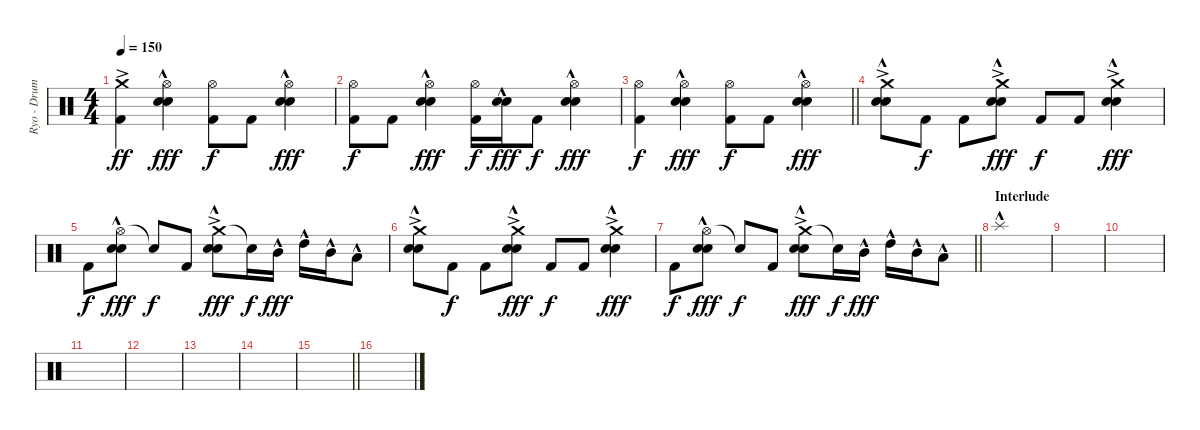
\track ("Ryo - Drums" "Ryo - Drum") {instrument percussion}
\staff {score}
\articulation defaults
\ts (4 4)
\tempo 150
\clef neutral
\ks c
("Crash medium (hit)"{ac} "Kick (hit) 2").4{dy ff} ("Hi-Hat (open)" "Electric Snare (hit)"{hac} "Snare (hit) 2"{hac}).4{dy fff} ("Hi-Hat (open)" "Kick (hit) 2").8{dy f} "Kick (hit) 2".8 ("Hi-Hat (open)" "Electric Snare (hit)"{hac} "Snare (hit) 2"{hac}).4{dy fff} |
("Hi-Hat (open)" "Kick (hit) 2").8{dy f} "Kick (hit) 2".8 ("Hi-Hat (open)" "Electric Snare (hit)"{hac} "Snare (hit) 2"{hac}).4{dy fff} ("Hi-Hat (open)" "Kick (hit) 2").16{dy f} ("Electric Snare (hit)"{hac} "Snare (hit) 2"{hac}).16{dy fff} "Kick (hit) 2".8{dy f} ("Hi-Hat (open)" "Electric Snare (hit)"{hac} "Snare (hit) 2"{hac}).4{dy fff} |
\barLineRight lightlight
("Hi-Hat (open)" "Kick (hit) 2").4{dy f} ("Hi-Hat (open)" "Electric Snare (hit)"{hac} "Snare (hit) 2"{hac}).4{dy fff} ("Hi-Hat (open)" "Kick (hit) 2").8{dy f} "Kick (hit) 2".8 ("Hi-Hat (open)" "Electric Snare (hit)"{hac} "Snare (hit) 2"{hac}).4{dy fff} |
("Crash medium (hit)"{ac} "Electric Snare (hit)"{hac} "Snare (hit) 2"{hac}).8 "Kick (hit) 2".8{dy f} "Kick (hit) 2".8 ("Crash medium (hit)"{ac} "Electric Snare (hit)"{hac} "Snare (hit) 2"{hac}).8{dy fff} "Kick (hit) 2".8{dy f} "Kick (hit) 2".8 ("Crash medium (hit)"{ac} "Electric Snare (hit)"{hac} "Snare (hit) 2"{hac}).4{dy fff} |
"Kick (hit) 2".8{dy f} ("Hi-Hat (open)" "Electric Snare (hit)"{hac} "Snare (hit) 2"{hac}).8{dy fff} "Snare (hit)"{t}.8{dy f} "Kick (hit) 2".8 ("Crash medium (hit)"{ac} "Electric Snare (hit)"{hac} "Snare (hit) 2"{hac}).8{dy fff} "Snare (hit)"{t}.16{dy f} "Mid Tom (hit)"{hac}.16{dy fff} "High Tom (hit)"{hac}.16 "Mid Tom (hit)"{hac}.16 "Low Tom (hit)"{hac}.8 |
("Crash medium (hit)"{ac} "Electric Snare (hit)"{hac} "Snare (hit) 2"{hac}).8 "Kick (hit) 2".8{dy f} "Kick (hit) 2".8 ("Crash medium (hit)"{ac} "Electric Snare (hit)"{hac} "Snare (hit) 2"{hac}).8{dy fff} "Kick (hit) 2".8{dy f} "Kick (hit) 2".8 ("Crash medium (hit)"{ac} "Electric Snare (hit)"{hac} "Snare (hit) 2"{hac}).4{dy fff} |
\barLineRight lightlight "Kick (hit) 2".8{dy f}
("Hi-Hat (open)" "Electric Snare (hit)"{hac} "Snare (hit) 2"{hac}).8{dy fff} "Snare (hit)"{t}.8{dy f} "Kick (hit) 2".8 ("Crash medium (hit)"{ac} "Electric Snare (hit)"{hac} "Snare (hit) 2"{hac}).8{dy fff} "Snare (hit)"{t}.16{dy f} "Mid Tom (hit)"{hac}.16{dy fff} "High Tom (hit)"{hac}.16 "Mid Tom (hit)"{hac}.16 "Low Tom (hit)"{hac}.8 |
\section ("" "Interlude")
"Splash (hit)"{hac}.1 |
|
|
|
|
|
|
\barLineRight lightlight
|
\section ("" "")
